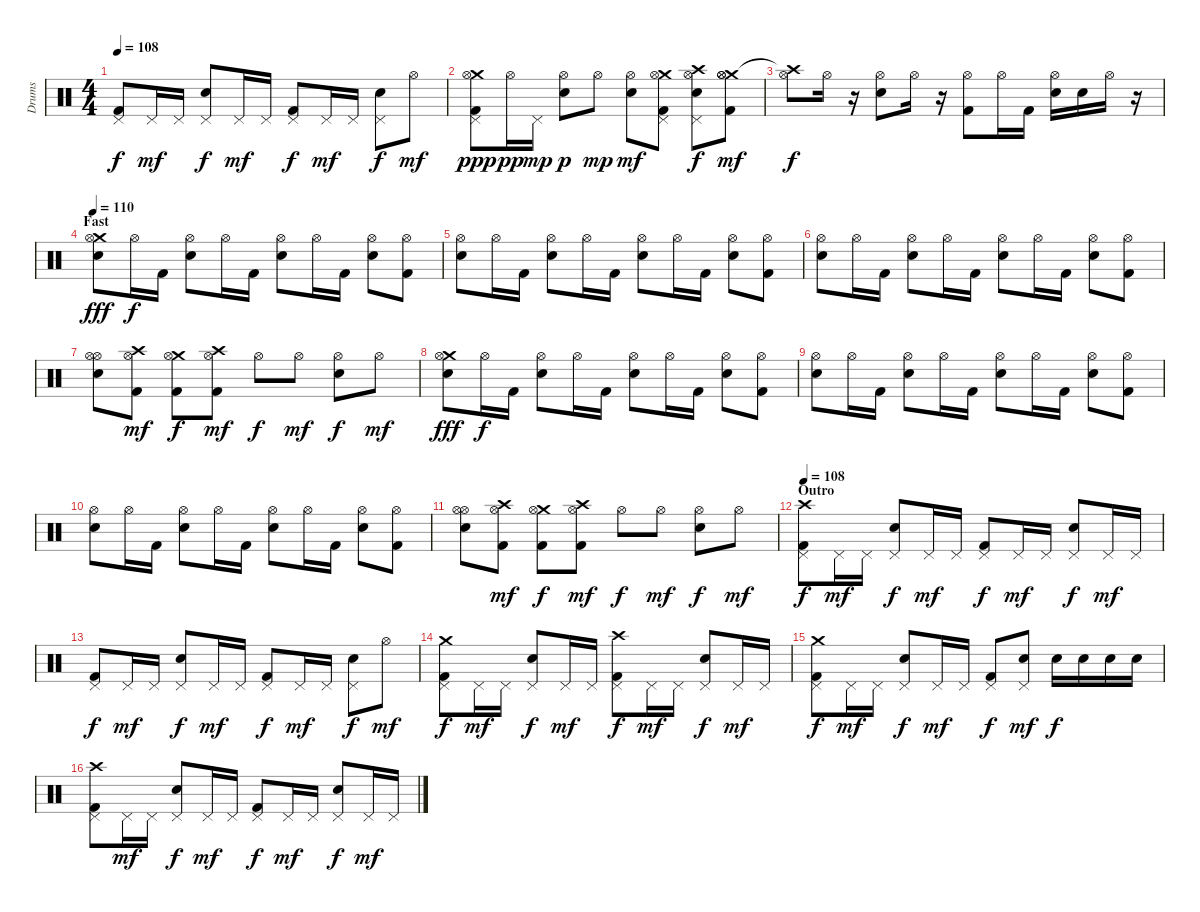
\track ("Drums" "Drums") {instrument percussion}
\staff {score}
\articulation defaults
\ts (4 4)
\tempo 108
\clef neutral
\ks c
("Pedal Hi-Hat (hit)" "Kick (hit) 2").8{dy f} "Pedal Hi-Hat (hit)".16{dy mf} "Pedal Hi-Hat (hit)".16 ("Pedal Hi-Hat (hit)" "Snare (hit) 2").8{dy f} "Pedal Hi-Hat (hit)".16{dy mf} "Pedal Hi-Hat (hit)".16 ("Pedal Hi-Hat (hit)" "Kick (hit) 2").8{dy f} "Pedal Hi-Hat (hit)".16{dy mf} "Pedal Hi-Hat (hit)".16 ("Pedal Hi-Hat (hit)" "Snare (hit) 2").8{dy f} "Hi-Hat (open)".8{dy mf} |
("Crash medium (hit)" "Pedal Hi-Hat (hit)" "Hi-Hat (open)" "Kick (hit) 2").8{dy ppp} "Hi-Hat (open)".16{dy pp} "Pedal Hi-Hat (hit)".16{dy mp} ("Hi-Hat (open)" "Snare (hit) 2").8{dy p} "Hi-Hat (open)".8{dy mp} ("Hi-Hat (open)" "Snare (hit) 2").8{dy mf} ("Crash medium (hit)" "Pedal Hi-Hat (hit)" "Hi-Hat (open)" "Kick (hit) 2").8 ("Crash high (hit)" "Pedal Hi-Hat (hit)" "Hi-Hat (open)" "Snare (hit) 2").8{dy f} ("Crash medium (hit)" "Hi-Hat (open)" "Hi-Hat (open)" "Kick (hit) 2").8{dy mf} |
("Crash high (hit)"{t} "Hi-Hat (open)").8{dy f} "Hi-Hat (open)".16 r.16 ("Hi-Hat (open)" "Snare (hit) 2").8 "Hi-Hat (open)".16 r.16 ("Hi-Hat (open)" "Kick (hit) 2").8 "Hi-Hat (open)".16 "Kick (hit) 2".16 ("Hi-Hat (open)" "Snare (hit) 2").16 "Snare (hit) 2".16 "Hi-Hat (open)".16 r.16 |
\section ("" "Fast")
\tempo 110
("Crash medium (hit)" "Hi-Hat (open)" "Snare (hit) 2").8{dy fff} "Hi-Hat (open)".16{dy f} "Kick (hit) 2".16 ("Hi-Hat (open)" "Snare (hit) 2").8 "Hi-Hat (open)".16 "Kick (hit) 2".16 ("Hi-Hat (open)" "Snare (hit) 2").8 "Hi-Hat (open)".16 "Kick (hit) 2".16 ("Hi-Hat (open)" "Snare (hit) 2").8 ("Hi-Hat (open)" "Kick (hit) 2").8 |
("Hi-Hat (open)" "Snare (hit) 2").8 "Hi-Hat (open)".16 "Kick (hit) 2".16 ("Hi-Hat (open)" "Snare (hit) 2").8 "Hi-Hat (open)".16 "Kick (hit) 2".16 ("Hi-Hat (open)" "Snare (hit) 2").8 "Hi-Hat (open)".16 "Kick (hit) 2".16 ("Hi-Hat (open)" "Snare (hit) 2").8 ("Hi-Hat (open)" "Kick (hit) 2").8 |
("Hi-Hat (open)" "Snare (hit) 2").8 "Hi-Hat (open)".16 "Kick (hit) 2".16 ("Hi-Hat (open)" "Snare (hit) 2").8 "Hi-Hat (open)".16 "Kick (hit) 2".16 ("Hi-Hat (open)" "Snare (hit) 2").8 "Hi-Hat (open)".16 "Kick (hit) 2".16 ("Hi-Hat (open)" "Snare (hit) 2").8 ("Hi-Hat (open)" "Kick (hit) 2").8 |
("Hi-Hat (open)" "Hi-Hat (open)" "Snare (hit) 2").8 ("Crash high (hit)" "Hi-Hat (open)" "Kick (hit) 2").8{dy mf} ("Crash medium (hit)" "Hi-Hat (open)" "Kick (hit) 2").8{dy f} ("Crash high (hit)" "Hi-Hat (open)" "Kick (hit) 2").8{dy mf} "Hi-Hat (open)".8{dy f} "Hi-Hat (open)".8{dy mf} ("Hi-Hat (open)" "Snare (hit) 2").8{dy f} "Hi-Hat (open)".8{dy mf} |
("Crash medium (hit)" "Hi-Hat (open)" "Snare (hit) 2").8{dy fff} "Hi-Hat (open)".16{dy f} "Kick (hit) 2".16 ("Hi-Hat (open)" "Snare (hit) 2").8 "Hi-Hat (open)".16 "Kick (hit) 2".16 ("Hi-Hat (open)" "Snare (hit) 2").8 "Hi-Hat (open)".16 "Kick (hit) 2".16 ("Hi-Hat (open)" "Snare (hit) 2").8 ("Hi-Hat (open)" "Kick (hit) 2").8 |
("Hi-Hat (open)" "Snare (hit) 2").8 "Hi-Hat (open)".16 "Kick (hit) 2".16 ("Hi-Hat (open)" "Snare (hit) 2").8 "Hi-Hat (open)".16 "Kick (hit) 2".16 ("Hi-Hat (open)" "Snare (hit) 2").8 "Hi-Hat (open)".16 "Kick (hit) 2".16 ("Hi-Hat (open)" "Snare (hit) 2").8 ("Hi-Hat (open)" "Kick (hit) 2").8 |
("Hi-Hat (open)" "Snare (hit) 2").8 "Hi-Hat (open)".16 "Kick (hit) 2".16 ("Hi-Hat (open)" "Snare (hit) 2").8 "Hi-Hat (open)".16 "Kick (hit) 2".16 ("Hi-Hat (open)" "Snare (hit) 2").8 "Hi-Hat (open)".16 "Kick (hit) 2".16 ("Hi-Hat (open)" "Snare (hit) 2").8 ("Hi-Hat (open)" "Kick (hit) 2").8 |
("Hi-Hat (open)" "Hi-Hat (open)" "Snare (hit) 2").8 ("Crash high (hit)" "Hi-Hat (open)" "Kick (hit) 2").8{dy mf} ("Crash medium (hit)" "Hi-Hat (open)" "Kick (hit) 2").8{dy f} ("Crash high (hit)" "Hi-Hat (open)" "Kick (hit) 2").8{dy mf} "Hi-Hat (open)".8{dy f} "Hi-Hat (open)".8{dy mf} ("Hi-Hat (open)" "Snare (hit) 2").8{dy f} "Hi-Hat (open)".8{dy mf} |
\section ("" "Outro")
\tempo 108
("Crash high (hit)" "Pedal Hi-Hat (hit)" "Kick (hit) 2").8{dy f} "Pedal Hi-Hat (hit)".16{dy mf} "Pedal Hi-Hat (hit)".16 ("Pedal Hi-Hat (hit)" "Snare (hit) 2").8{dy f} "Pedal Hi-Hat (hit)".16{dy mf} "Pedal Hi-Hat (hit)".16 ("Pedal Hi-Hat (hit)" "Kick (hit) 2").8{dy f} "Pedal Hi-Hat (hit)".16{dy mf} "Pedal Hi-Hat (hit)".16 ("Pedal Hi-Hat (hit)" "Snare (hit) 2").8{dy f} "Pedal Hi-Hat (hit)".16{dy mf} "Pedal Hi-Hat (hit)".16 |
("Pedal Hi-Hat (hit)" "Kick (hit) 2").8{dy f} "Pedal Hi-Hat (hit)".16{dy mf} "Pedal Hi-Hat (hit)".16 ("Pedal Hi-Hat (hit)" "Snare (hit) 2").8{dy f} "Pedal Hi-Hat (hit)".16{dy mf} "Pedal Hi-Hat (hit)".16 ("Pedal Hi-Hat (hit)" "Kick (hit) 2").8{dy f} "Pedal Hi-Hat (hit)".16{dy mf} "Pedal Hi-Hat (hit)".16 ("Pedal Hi-Hat (hit)" "Snare (hit) 2").8{dy f} "Hi-Hat (open)".8{dy mf} |
("Crash medium (hit)" "Pedal Hi-Hat (hit)" "Kick (hit) 2").8{dy f} "Pedal Hi-Hat (hit)".16{dy mf} "Pedal Hi-Hat (hit)".16 ("Pedal Hi-Hat (hit)" "Snare (hit) 2").8{dy f} "Pedal Hi-Hat (hit)".16{dy mf} "Pedal Hi-Hat (hit)".16 ("Crash high (hit)" "Pedal Hi-Hat (hit)" "Kick (hit) 2").8{dy f} "Pedal Hi-Hat (hit)".16{dy mf} "Pedal Hi-Hat (hit)".16 ("Pedal Hi-Hat (hit)" "Snare (hit) 2").8{dy f} "Pedal Hi-Hat (hit)".16{dy mf} "Pedal Hi-Hat (hit)".16 |
("Crash medium (hit)" "Pedal Hi-Hat (hit)" "Kick (hit) 2").8{dy f} "Pedal Hi-Hat (hit)".16{dy mf} "Pedal Hi-Hat (hit)".16 ("Pedal Hi-Hat (hit)" "Snare (hit) 2").8{dy f} "Pedal Hi-Hat (hit)".16{dy mf} "Pedal Hi-Hat (hit)".16 ("Pedal Hi-Hat (hit)" "Kick (hit) 2").8{dy f} ("Pedal Hi-Hat (hit)" "Snare (hit) 2").8{dy mf} "Snare (hit) 2".16{dy f} "Snare (hit) 2".16 "Snare (hit) 2".16 "Snare (hit) 2".16 |
("Crash high (hit)" "Pedal Hi-Hat (hit)" "Kick (hit) 2").8 "Pedal Hi-Hat (hit)".16{dy mf} "Pedal Hi-Hat (hit)".16 ("Pedal Hi-Hat (hit)" "Snare (hit) 2").8{dy f} "Pedal Hi-Hat (hit)".16{dy mf} "Pedal Hi-Hat (hit)".16 ("Pedal Hi-Hat (hit)" "Kick (hit) 2").8{dy f} "Pedal Hi-Hat (hit)".16{dy mf} "Pedal Hi-Hat (hit)".16 ("Pedal Hi-Hat (hit)" "Snare (hit) 2").8{dy f} "Pedal Hi-Hat (hit)".16{dy mf} "Pedal Hi-Hat (hit)".16
